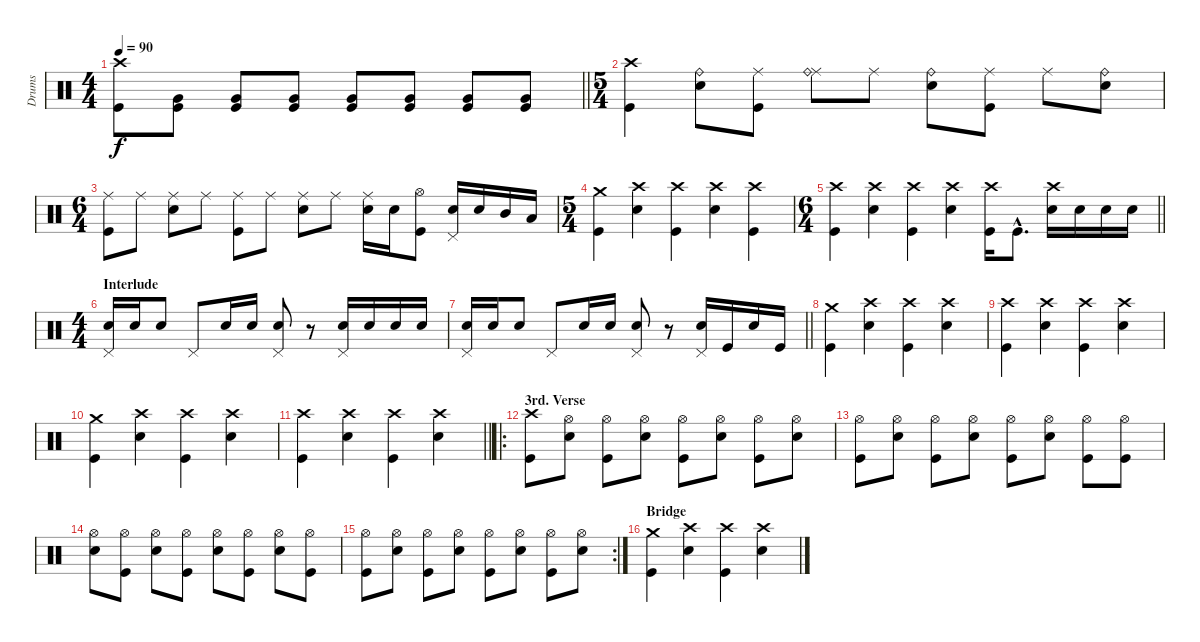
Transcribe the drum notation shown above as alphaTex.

\track ("Drums" "Drums") {instrument percussion}
\staff {score}
\articulation defaults
\ts (4 4)
\tempo 90
\clef neutral
\barLineRight lightlight
\ks c
("Crash high (hit)" "Kick (hit)").8{dy f} ("Very Low Tom (hit)" "Kick (hit)").8 ("Very Low Tom (hit)" "Kick (hit)").8 ("Very Low Tom (hit)" "Kick (hit)").8 ("Very Low Tom (hit)" "Kick (hit)").8 ("Very Low Tom (hit)" "Kick (hit)").8 ("Very Low Tom (hit)" "Kick (hit)").8 ("Very Low Tom (hit)" "Kick (hit)").8 |
\ts (5 4)
("Crash high (hit)" "Kick (hit)").4 ("Ride (bell)" "Electric Snare (hit)").8 ("Ride (middle)" "Kick (hit)").8 ("Ride (middle)" "Ride (bell)").8 "Ride (middle)".8 ("Ride (bell)" "Electric Snare (hit)").8 ("Ride (middle)" "Kick (hit)").8 "Ride (middle)".8 ("Ride (bell)" "Electric Snare (hit)").8 |
\ts (6 4)
("Ride (middle)" "Kick (hit)").8 "Ride (middle)".8 ("Ride (middle)" "Electric Snare (hit)").8 "Ride (middle)".8 ("Ride (middle)" "Kick (hit)").8 "Ride (middle)".8 ("Ride (middle)" "Electric Snare (hit)").8 "Ride (middle)".8 ("Ride (middle)" "Electric Snare (hit)").16 "Electric Snare (hit)".16 ("Hi-Hat (open)" "Kick (hit)").8 ("Pedal Hi-Hat (hit)" "Electric Snare (hit)").16 "Electric Snare (hit)".16 "Mid Tom (hit)".16 "Low Tom (hit)".16 |
\ts (5 4)
("Crash medium (hit)" "Kick (hit)").4 ("Crash high (hit)" "Electric Snare (hit)").4 ("Crash high (hit)" "Kick (hit)").4 ("Crash high (hit)" "Electric Snare (hit)").4 ("Crash high (hit)" "Kick (hit)").4 |
\ts (6 4)
\barLineRight lightlight
("Crash high (hit)" "Kick (hit)").4 ("Crash high (hit)" "Electric Snare (hit)").4 ("Crash high (hit)" "Kick (hit)").4 ("Crash high (hit)" "Electric Snare (hit)").4 ("Crash high (hit)" "Kick (hit)").16 "Kick (hit)"{hac}.8{d} ("Crash high (hit)" "Electric Snare (hit)").16 "Electric Snare (hit)".16 "Electric Snare (hit)".16 "Electric Snare (hit)".16 |
\ts (4 4)
\section ("" "Interlude")
("Pedal Hi-Hat (hit)" "Electric Snare (hit)").16 "Electric Snare (hit)".16 "Electric Snare (hit)".8 "Pedal Hi-Hat (hit)".8 "Electric Snare (hit)".16 "Electric Snare (hit)".16 ("Pedal Hi-Hat (hit)" "Electric Snare (hit)").8 r.8 ("Pedal Hi-Hat (hit)" "Electric Snare (hit)").16 "Electric Snare (hit)".16 "Electric Snare (hit)".16 "Electric Snare (hit)".16 |
\barLineRight lightlight
("Pedal Hi-Hat (hit)" "Electric Snare (hit)").16 "Electric Snare (hit)".16 "Electric Snare (hit)".8 "Pedal Hi-Hat (hit)".8 "Electric Snare (hit)".16 "Electric Snare (hit)".16 ("Pedal Hi-Hat (hit)" "Electric Snare (hit)").8 r.8 ("Pedal Hi-Hat (hit)" "Electric Snare (hit)").16 "Kick (hit)".16 "Electric Snare (hit)".16 "Kick (hit)".16 |
("Crash medium (hit)" "Kick (hit)").4 ("Crash high (hit)" "Electric Snare (hit)").4 ("Crash high (hit)" "Kick (hit)").4 ("Crash high (hit)" "Electric Snare (hit)").4 |
("Crash high (hit)" "Kick (hit)").4 ("Crash high (hit)" "Electric Snare (hit)").4 ("Crash high (hit)" "Kick (hit)").4 ("Crash high (hit)" "Electric Snare (hit)").4 |
("Crash medium (hit)" "Kick (hit)").4 ("Crash high (hit)" "Electric Snare (hit)").4 ("Crash high (hit)" "Kick (hit)").4 ("Crash high (hit)" "Electric Snare (hit)").4 |
\barLineRight lightlight
("Crash high (hit)" "Kick (hit)").4 ("Crash high (hit)" "Electric Snare (hit)").4 ("Crash high (hit)" "Kick (hit)").4 ("Crash high (hit)" "Electric Snare (hit)").4 |
\ro
\section ("" "3rd. Verse")
("Crash high (hit)" "Kick (hit)").8 ("Hi-Hat (open)" "Electric Snare (hit)").8 ("Hi-Hat (open)" "Kick (hit)").8 ("Hi-Hat (open)" "Electric Snare (hit)").8 ("Hi-Hat (open)" "Kick (hit)").8 ("Hi-Hat (open)" "Electric Snare (hit)").8 ("Hi-Hat (open)" "Kick (hit)").8 ("Hi-Hat (open)" "Electric Snare (hit)").8 |
("Hi-Hat (open)" "Kick (hit)").8 ("Hi-Hat (open)" "Electric Snare (hit)").8 ("Hi-Hat (open)" "Kick (hit)").8 ("Hi-Hat (open)" "Electric Snare (hit)").8 ("Hi-Hat (open)" "Kick (hit)").8 ("Hi-Hat (open)" "Electric Snare (hit)").8 ("Hi-Hat (open)" "Kick (hit)").8 ("Hi-Hat (open)" "Kick (hit)").8 |
("Hi-Hat (open)" "Electric Snare (hit)").8 ("Hi-Hat (open)" "Kick (hit)").8 ("Hi-Hat (open)" "Electric Snare (hit)").8 ("Hi-Hat (open)" "Kick (hit)").8 ("Hi-Hat (open)" "Electric Snare (hit)").8 ("Hi-Hat (open)" "Kick (hit)").8 ("Hi-Hat (open)" "Electric Snare (hit)").8 ("Hi-Hat (open)" "Kick (hit)").8 |
\rc 2
("Hi-Hat (open)" "Kick (hit)").8 ("Hi-Hat (open)" "Electric Snare (hit)").8 ("Hi-Hat (open)" "Kick (hit)").8 ("Hi-Hat (open)" "Electric Snare (hit)").8 ("Hi-Hat (open)" "Kick (hit)").8 ("Hi-Hat (open)" "Electric Snare (hit)").8 ("Hi-Hat (open)" "Kick (hit)").8 ("Hi-Hat (open)" "Electric Snare (hit)").8 |
\section ("" "Bridge")
("Crash medium (hit)" "Kick (hit)").4 ("Crash high (hit)" "Electric Snare (hit)").4 ("Crash high (hit)" "Kick (hit)").4 ("Crash high (hit)" "Electric Snare (hit)").4
